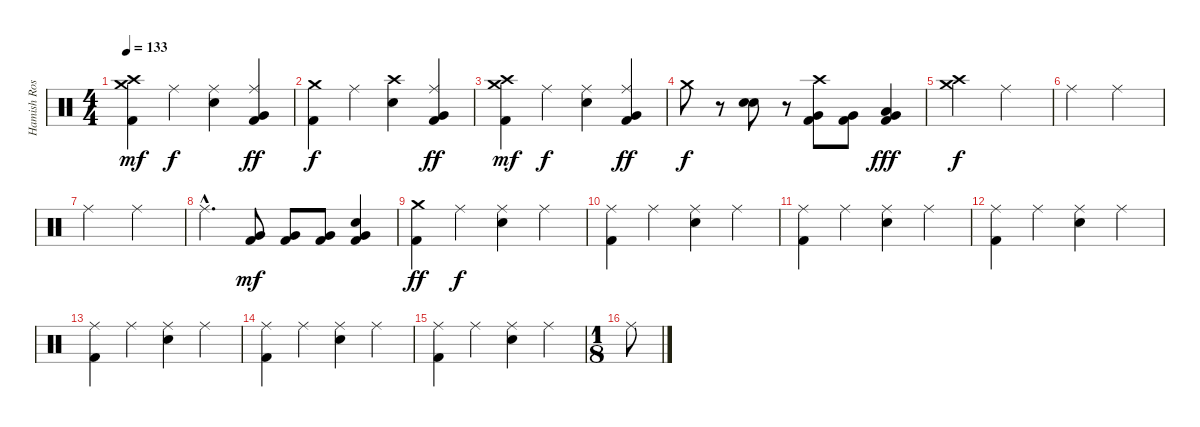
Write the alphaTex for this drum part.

\track ("Hamish Rosser" "Hamish Ros") {instrument percussion}
\staff {score}
\articulation defaults
\ts (4 4)
\tempo 133
\clef neutral
\ks c
("Crash medium (hit)" "Crash high (hit)" "Kick (hit) 2").4{dy mf} "Ride (middle)".4{dy f} ("Ride (middle)" "Electric Snare (hit)").4 ("Ride (middle)" "Very Low Tom (hit)" "Kick (hit) 2").4{dy ff} |
("Crash medium (hit)" "Kick (hit) 2").4{dy f} "Ride (middle)".4 ("Crash high (hit)" "Electric Snare (hit)").4 ("Ride (middle)" "Very Low Tom (hit)" "Kick (hit) 2").4{dy ff} |
("Crash medium (hit)" "Crash high (hit)" "Kick (hit) 2").4{dy mf} "Ride (middle)".4{dy f} ("Ride (middle)" "Electric Snare (hit)").4 ("Ride (middle)" "Very Low Tom (hit)" "Kick (hit) 2").4{dy ff} |
"Crash medium (hit)".8{dy f} r.8 ("Electric Snare (hit)" "Electric Snare (hit)").8{bu 120} r.8 ("Crash high (hit)" "Very Low Tom (hit)" "Kick (hit) 2").8 ("Very Low Tom (hit)" "Kick (hit) 2").8 ("Low Tom (hit)" "Very Low Tom (hit)" "Kick (hit) 2").4{dy fff} |
("Crash medium (hit)" "Crash high (hit)").2{dy f} "Ride (middle)".2 |
"Ride (middle)".2 "Ride (middle)".2 |
"Ride (middle)".2 "Ride (middle)".2 |
"Ride (middle)"{hac}.4{d} ("Very Low Tom (hit)" "Kick (hit) 2").8{dy mf} ("Very Low Tom (hit)" "Kick (hit) 2").8 ("Very Low Tom (hit)" "Kick (hit) 2").8 ("Electric Snare (hit)" "Very Low Tom (hit)" "Kick (hit) 2").4 |
("Crash medium (hit)" "Kick (hit) 2").4{dy ff} "Ride (middle)".4{dy f} ("Ride (middle)" "Electric Snare (hit)").4 "Ride (middle)".4 |
("Ride (middle)" "Kick (hit) 2").4 "Ride (middle)".4 ("Ride (middle)" "Electric Snare (hit)").4 "Ride (middle)".4 |
("Ride (middle)" "Kick (hit) 2").4 "Ride (middle)".4 ("Ride (middle)" "Electric Snare (hit)").4 "Ride (middle)".4 |
("Ride (middle)" "Kick (hit) 2").4 "Ride (middle)".4 ("Ride (middle)" "Electric Snare (hit)").4 "Ride (middle)".4 |
("Ride (middle)" "Kick (hit) 2").4 "Ride (middle)".4 ("Ride (middle)" "Electric Snare (hit)").4 "Ride (middle)".4 |
("Ride (middle)" "Kick (hit) 2").4 "Ride (middle)".4 ("Ride (middle)" "Electric Snare (hit)").4 "Ride (middle)".4 |
("Ride (middle)" "Kick (hit) 2").4 "Ride (middle)".4 ("Ride (middle)" "Electric Snare (hit)").4 "Ride (middle)".4 |
\ts (1 8)
"Ride (middle)".8
